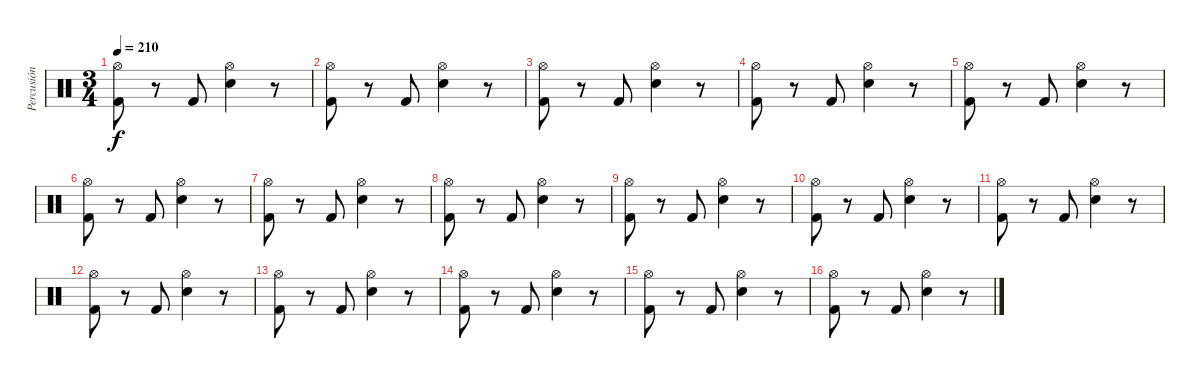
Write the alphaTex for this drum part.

\track ("Percusión" "Percusión") {instrument percussion}
\staff {score}
\articulation defaults
\ts (3 4)
\tempo 210
\clef neutral
\ks c
("Kick (hit) 2" "Hi-Hat (open)").8{dy f} r.8 "Kick (hit) 2".8 ("Electric Snare (hit)" "Hi-Hat (open)").4 r.8 |
("Kick (hit) 2" "Hi-Hat (open)").8 r.8 "Kick (hit) 2".8 ("Electric Snare (hit)" "Hi-Hat (open)").4 r.8 |
("Kick (hit) 2" "Hi-Hat (open)").8 r.8 "Kick (hit) 2".8 ("Electric Snare (hit)" "Hi-Hat (open)").4 r.8 |
("Kick (hit) 2" "Hi-Hat (open)").8 r.8 "Kick (hit) 2".8 ("Electric Snare (hit)" "Hi-Hat (open)").4 r.8 |
("Kick (hit) 2" "Hi-Hat (open)").8 r.8 "Kick (hit) 2".8 ("Electric Snare (hit)" "Hi-Hat (open)").4 r.8 |
("Kick (hit) 2" "Hi-Hat (open)").8 r.8 "Kick (hit) 2".8 ("Electric Snare (hit)" "Hi-Hat (open)").4 r.8 |
("Kick (hit) 2" "Hi-Hat (open)").8 r.8 "Kick (hit) 2".8 ("Electric Snare (hit)" "Hi-Hat (open)").4 r.8 |
("Kick (hit) 2" "Hi-Hat (open)").8 r.8 "Kick (hit) 2".8 ("Electric Snare (hit)" "Hi-Hat (open)").4 r.8 |
("Kick (hit) 2" "Hi-Hat (open)").8 r.8 "Kick (hit) 2".8 ("Electric Snare (hit)" "Hi-Hat (open)").4 r.8 |
("Kick (hit) 2" "Hi-Hat (open)").8 r.8 "Kick (hit) 2".8 ("Electric Snare (hit)" "Hi-Hat (open)").4 r.8 |
("Kick (hit) 2" "Hi-Hat (open)").8 r.8 "Kick (hit) 2".8 ("Electric Snare (hit)" "Hi-Hat (open)").4 r.8 |
("Kick (hit) 2" "Hi-Hat (open)").8 r.8 "Kick (hit) 2".8 ("Electric Snare (hit)" "Hi-Hat (open)").4 r.8 |
("Kick (hit) 2" "Hi-Hat (open)").8 r.8 "Kick (hit) 2".8 ("Electric Snare (hit)" "Hi-Hat (open)").4 r.8 |
("Kick (hit) 2" "Hi-Hat (open)").8 r.8 "Kick (hit) 2".8 ("Electric Snare (hit)" "Hi-Hat (open)").4 r.8 |
("Kick (hit) 2" "Hi-Hat (open)").8 r.8 "Kick (hit) 2".8 ("Electric Snare (hit)" "Hi-Hat (open)").4 r.8 |
("Kick (hit) 2" "Hi-Hat (open)").8 r.8 "Kick (hit) 2".8 ("Electric Snare (hit)" "Hi-Hat (open)").4 r.8
